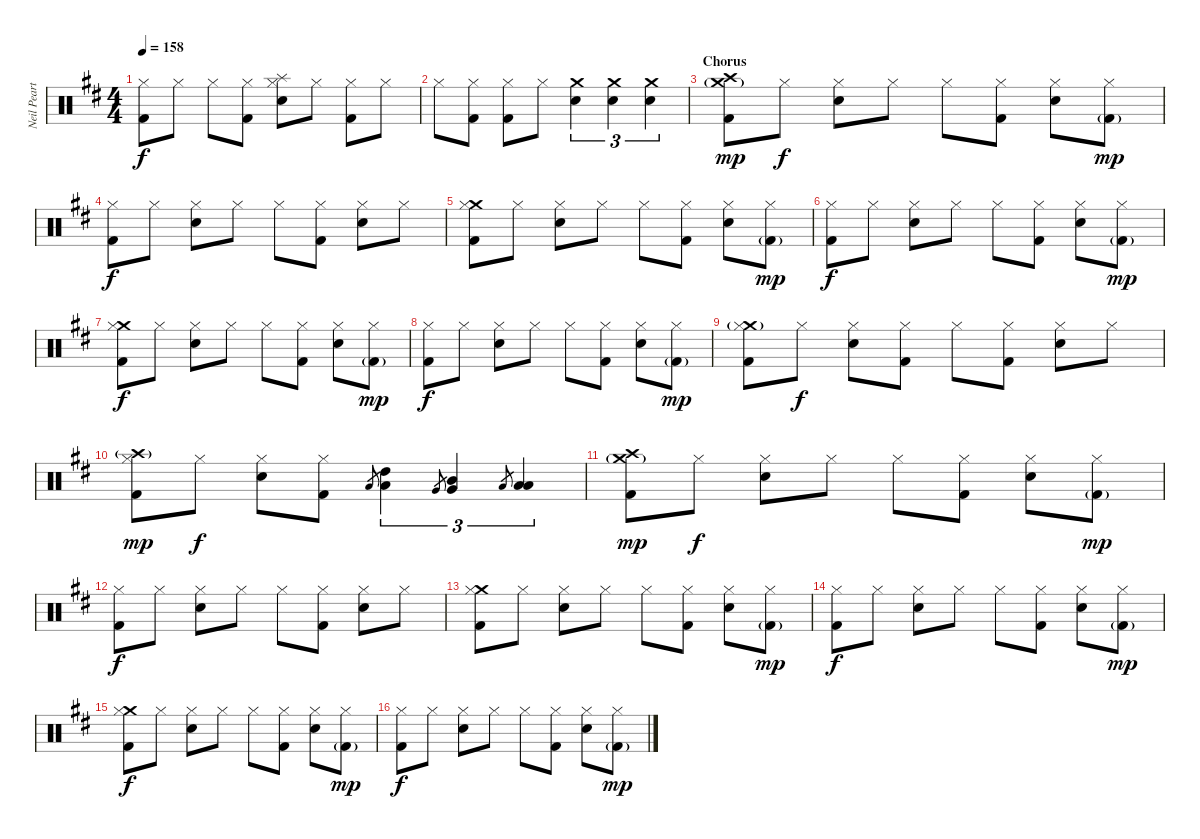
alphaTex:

\track ("Neil Peart (drums)" "Neil Peart") {instrument percussion}
\staff {score}
\articulation defaults
\ts (4 4)
\tempo 158
\clef neutral
\ks bminor
("Hi-Hat (closed)" "Kick (hit) 2").8{dy f} "Hi-Hat (closed)".8 "Hi-Hat (closed)".8 ("Hi-Hat (closed)" "Kick (hit) 2").8 ("Splash (hit)" "Hi-Hat (closed)" "Electric Snare (hit)").8 "Hi-Hat (closed)".8 ("Hi-Hat (closed)" "Kick (hit) 2").8 "Hi-Hat (closed)".8 |
"Hi-Hat (closed)".8 ("Hi-Hat (closed)" "Kick (hit) 2").8 ("Hi-Hat (closed)" "Kick (hit) 2").8 "Hi-Hat (closed)".8 ("Crash medium (hit)" "Electric Snare (hit)").4{tu (3 2)} ("Crash medium (hit)" "Electric Snare (hit)").4{tu (3 2)} ("Crash medium (hit)" "Electric Snare (hit)").4{tu (3 2)} |
\section ("" "Chorus")
("Crash medium (hit)"{g} "Crash high (hit)" "Kick (hit) 2").8{dy mp} "Hi-Hat (closed)".8{dy f} ("Hi-Hat (closed)" "Electric Snare (hit)").8 "Hi-Hat (closed)".8 "Hi-Hat (closed)".8 ("Hi-Hat (closed)" "Kick (hit) 2").8 ("Hi-Hat (closed)" "Electric Snare (hit)").8 ("Hi-Hat (closed)" "Kick (hit) 2"{g}).8{dy mp} |
("Hi-Hat (closed)" "Kick (hit) 2").8{dy f} "Hi-Hat (closed)".8 ("Hi-Hat (closed)" "Electric Snare (hit)").8 "Hi-Hat (closed)".8 "Hi-Hat (closed)".8 ("Hi-Hat (closed)" "Kick (hit) 2").8 ("Hi-Hat (closed)" "Electric Snare (hit)").8 "Hi-Hat (closed)".8 |
("Crash medium (hit)" "Hi-Hat (closed)" "Kick (hit) 2").8 "Hi-Hat (closed)".8 ("Hi-Hat (closed)" "Electric Snare (hit)").8 "Hi-Hat (closed)".8 "Hi-Hat (closed)".8 ("Hi-Hat (closed)" "Kick (hit) 2").8 ("Hi-Hat (closed)" "Electric Snare (hit)").8 ("Hi-Hat (closed)" "Kick (hit) 2"{g}).8{dy mp} |
("Hi-Hat (closed)" "Kick (hit) 2").8{dy f} "Hi-Hat (closed)".8 ("Hi-Hat (closed)" "Electric Snare (hit)").8 "Hi-Hat (closed)".8 "Hi-Hat (closed)".8 ("Hi-Hat (closed)" "Kick (hit) 2").8 ("Hi-Hat (closed)" "Electric Snare (hit)").8 ("Hi-Hat (closed)" "Kick (hit) 2"{g}).8{dy mp} |
("Crash medium (hit)" "Hi-Hat (closed)" "Kick (hit) 2").8{dy f} "Hi-Hat (closed)".8 ("Hi-Hat (closed)" "Electric Snare (hit)").8 "Hi-Hat (closed)".8 "Hi-Hat (closed)".8 ("Hi-Hat (closed)" "Kick (hit) 2").8 ("Hi-Hat (closed)" "Electric Snare (hit)").8 ("Hi-Hat (closed)" "Kick (hit) 2"{g}).8{dy mp} |
("Hi-Hat (closed)" "Kick (hit) 2").8{dy f} "Hi-Hat (closed)".8 ("Hi-Hat (closed)" "Electric Snare (hit)").8 "Hi-Hat (closed)".8 "Hi-Hat (closed)".8 ("Hi-Hat (closed)" "Kick (hit) 2").8 ("Hi-Hat (closed)" "Electric Snare (hit)").8 ("Hi-Hat (closed)" "Kick (hit) 2"{g}).8{dy mp} |
("Crash medium (hit)"{g} "Hi-Hat (closed)" "Kick (hit) 2").8 "Hi-Hat (closed)".8{dy f} ("Hi-Hat (closed)" "Electric Snare (hit)").8 ("Hi-Hat (closed)" "Kick (hit) 2").8 "Hi-Hat (closed)".8 ("Hi-Hat (closed)" "Kick (hit) 2").8 ("Hi-Hat (closed)" "Electric Snare (hit)").8 "Hi-Hat (closed)".8 |
("Crash high (hit)"{g} "Hi-Hat (closed)" "Kick (hit) 2").8{dy mp} "Hi-Hat (closed)".8{dy f} ("Hi-Hat (closed)" "Electric Snare (hit)").8 ("Hi-Hat (closed)" "Kick (hit) 2").8 "Low Tom (hit)".8{gr} ("High Tom (hit)" "Low Tom (hit)").4{tu (3 2)} "Very Low Tom (hit)".8{gr} ("Mid Tom (hit)" "Very Low Tom (hit)").4{tu (3 2)} "Low Floor Tom (hit)".8{gr} ("Low Tom (hit)" "Low Floor Tom (hit)").4{tu (3 2)} |
("Crash medium (hit)"{g} "Crash high (hit)" "Kick (hit) 2").8{dy mp} "Hi-Hat (closed)".8{dy f} ("Hi-Hat (closed)" "Electric Snare (hit)").8 "Hi-Hat (closed)".8 "Hi-Hat (closed)".8 ("Hi-Hat (closed)" "Kick (hit) 2").8 ("Hi-Hat (closed)" "Electric Snare (hit)").8 ("Hi-Hat (closed)" "Kick (hit) 2"{g}).8{dy mp} |
("Hi-Hat (closed)" "Kick (hit) 2").8{dy f} "Hi-Hat (closed)".8 ("Hi-Hat (closed)" "Electric Snare (hit)").8 "Hi-Hat (closed)".8 "Hi-Hat (closed)".8 ("Hi-Hat (closed)" "Kick (hit) 2").8 ("Hi-Hat (closed)" "Electric Snare (hit)").8 "Hi-Hat (closed)".8 |
("Crash medium (hit)" "Hi-Hat (closed)" "Kick (hit) 2").8 "Hi-Hat (closed)".8 ("Hi-Hat (closed)" "Electric Snare (hit)").8 "Hi-Hat (closed)".8 "Hi-Hat (closed)".8 ("Hi-Hat (closed)" "Kick (hit) 2").8 ("Hi-Hat (closed)" "Electric Snare (hit)").8 ("Hi-Hat (closed)" "Kick (hit) 2"{g}).8{dy mp} |
("Hi-Hat (closed)" "Kick (hit) 2").8{dy f} "Hi-Hat (closed)".8 ("Hi-Hat (closed)" "Electric Snare (hit)").8 "Hi-Hat (closed)".8 "Hi-Hat (closed)".8 ("Hi-Hat (closed)" "Kick (hit) 2").8 ("Hi-Hat (closed)" "Electric Snare (hit)").8 ("Hi-Hat (closed)" "Kick (hit) 2"{g}).8{dy mp} |
("Crash medium (hit)" "Hi-Hat (closed)" "Kick (hit) 2").8{dy f} "Hi-Hat (closed)".8 ("Hi-Hat (closed)" "Electric Snare (hit)").8 "Hi-Hat (closed)".8 "Hi-Hat (closed)".8 ("Hi-Hat (closed)" "Kick (hit) 2").8 ("Hi-Hat (closed)" "Electric Snare (hit)").8 ("Hi-Hat (closed)" "Kick (hit) 2"{g}).8{dy mp} |
("Hi-Hat (closed)" "Kick (hit) 2").8{dy f} "Hi-Hat (closed)".8 ("Hi-Hat (closed)" "Electric Snare (hit)").8 "Hi-Hat (closed)".8 "Hi-Hat (closed)".8 ("Hi-Hat (closed)" "Kick (hit) 2").8 ("Hi-Hat (closed)" "Electric Snare (hit)").8 ("Hi-Hat (closed)" "Kick (hit) 2"{g}).8{dy mp}
